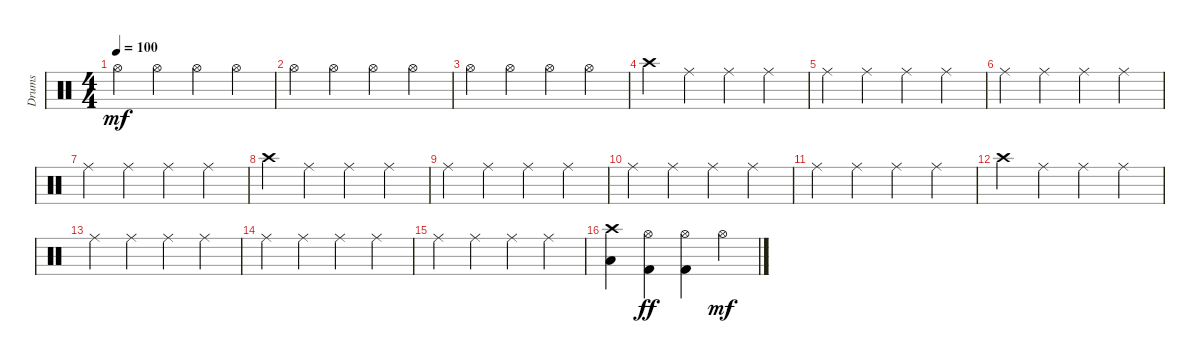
\track ("Drums" "Drums") {instrument percussion}
\staff {score}
\articulation defaults
\ts (4 4)
\tempo 100
\clef neutral
\ks c "Hi-Hat (open)".4{dy mf} "Hi-Hat (open)".4 "Hi-Hat (open)".4 "Hi-Hat (open)".4
|
"Hi-Hat (open)".4 "Hi-Hat (open)".4 "Hi-Hat (open)".4 "Hi-Hat (open)".4 |
"Hi-Hat (open)".4 "Hi-Hat (open)".4 "Hi-Hat (open)".4 "Hi-Hat (open)".4 |
"Crash high (hit)".4 "Ride (middle)".4 "Ride (middle)".4 "Ride (middle)".4 |
"Ride (middle)".4 "Ride (middle)".4 "Ride (middle)".4 "Ride (middle)".4 |
"Ride (middle)".4 "Ride (middle)".4 "Ride (middle)".4 "Ride (middle)".4 |
"Ride (middle)".4 "Ride (middle)".4 "Ride (middle)".4 "Ride (middle)".4 |
"Crash high (hit)".4 "Ride (middle)".4 "Ride (middle)".4 "Ride (middle)".4 |
"Ride (middle)".4 "Ride (middle)".4 "Ride (middle)".4 "Ride (middle)".4 |
"Ride (middle)".4 "Ride (middle)".4 "Ride (middle)".4 "Ride (middle)".4 |
"Ride (middle)".4 "Ride (middle)".4 "Ride (middle)".4 "Ride (middle)".4 |
"Crash high (hit)".4 "Ride (middle)".4 "Ride (middle)".4 "Ride (middle)".4 |
"Ride (middle)".4 "Ride (middle)".4 "Ride (middle)".4 "Ride (middle)".4 |
"Ride (middle)".4 "Ride (middle)".4 "Ride (middle)".4 "Ride (middle)".4 |
"Ride (middle)".4 "Ride (middle)".4 "Ride (middle)".4 "Ride (middle)".4 |
("Crash high (hit)" "Low Floor Tom (hit)").4 ("Hi-Hat (open)" "Kick (hit) 2").4{dy ff} ("Hi-Hat (open)" "Kick (hit) 2").4 "Hi-Hat (open)".4{dy mf}
